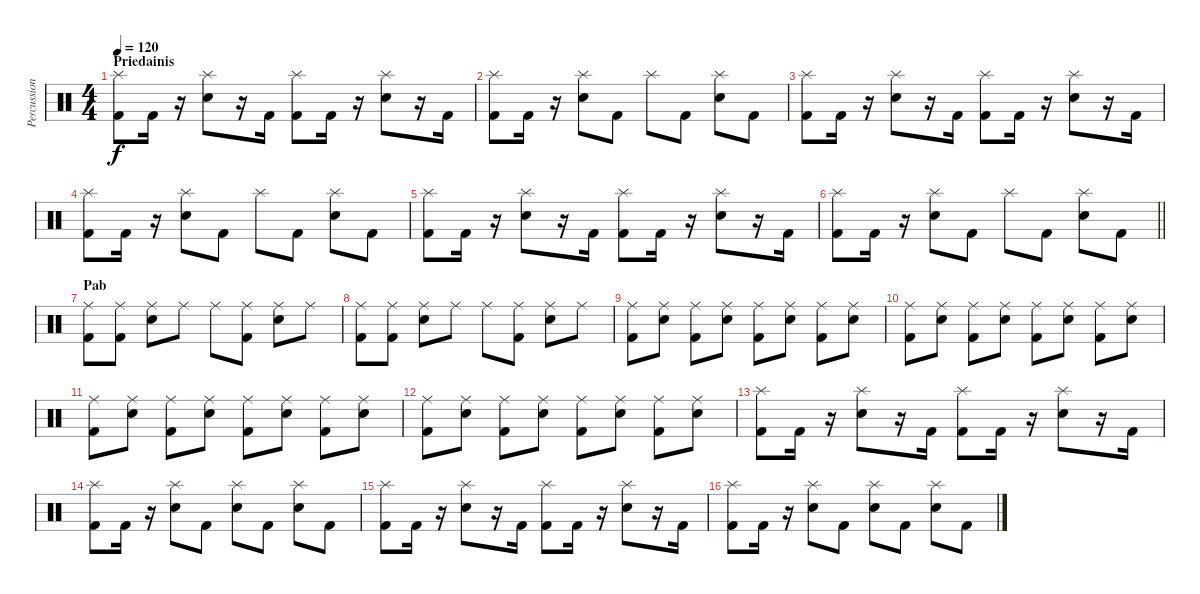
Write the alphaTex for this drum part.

\track ("Percussions" "Percussion") {instrument percussion}
\staff {score}
\articulation defaults
\ts (4 4)
\section ("" "Priedainis")
\tempo 120
\clef neutral
\ks c
("Splash (hit)" "Kick (hit) 2").8{dy f} "Kick (hit) 2".16 r.16 ("Splash (hit)" "Electric Snare (hit)").8 r.16 "Kick (hit) 2".16 ("Splash (hit)" "Kick (hit) 2").8 "Kick (hit) 2".16 r.16 ("Splash (hit)" "Electric Snare (hit)").8 r.16 "Kick (hit) 2".16 |
("Splash (hit)" "Kick (hit) 2").8 "Kick (hit) 2".16 r.16 ("Splash (hit)" "Electric Snare (hit)").8 "Kick (hit) 2".8 "Splash (hit)".8 "Kick (hit) 2".8 ("Splash (hit)" "Electric Snare (hit)").8 "Kick (hit) 2".8 |
("Splash (hit)" "Kick (hit) 2").8 "Kick (hit) 2".16 r.16 ("Splash (hit)" "Electric Snare (hit)").8 r.16 "Kick (hit) 2".16 ("Splash (hit)" "Kick (hit) 2").8 "Kick (hit) 2".16 r.16 ("Splash (hit)" "Electric Snare (hit)").8 r.16 "Kick (hit) 2".16 |
("Splash (hit)" "Kick (hit) 2").8 "Kick (hit) 2".16 r.16 ("Splash (hit)" "Electric Snare (hit)").8 "Kick (hit) 2".8 "Splash (hit)".8 "Kick (hit) 2".8 ("Splash (hit)" "Electric Snare (hit)").8 "Kick (hit) 2".8 |
("Splash (hit)" "Kick (hit) 2").8 "Kick (hit) 2".16 r.16 ("Splash (hit)" "Electric Snare (hit)").8 r.16 "Kick (hit) 2".16 ("Splash (hit)" "Kick (hit) 2").8 "Kick (hit) 2".16 r.16 ("Splash (hit)" "Electric Snare (hit)").8 r.16 "Kick (hit) 2".16 |
\barLineRight lightlight
("Splash (hit)" "Kick (hit) 2").8 "Kick (hit) 2".16 r.16 ("Splash (hit)" "Electric Snare (hit)").8 "Kick (hit) 2".8 "Splash (hit)".8 "Kick (hit) 2".8 ("Splash (hit)" "Electric Snare (hit)").8 "Kick (hit) 2".8 |
\section ("" "Pab")
("Ride (middle)" "Kick (hit) 2").8 ("Ride (middle)" "Kick (hit) 2").8 ("Ride (middle)" "Electric Snare (hit)").8 "Ride (middle)".8 "Ride (middle)".8 ("Ride (middle)" "Kick (hit) 2").8 ("Ride (middle)" "Electric Snare (hit)").8 "Ride (middle)".8 |
("Ride (middle)" "Kick (hit) 2").8 ("Ride (middle)" "Kick (hit) 2").8 ("Ride (middle)" "Electric Snare (hit)").8 "Ride (middle)".8 "Ride (middle)".8 ("Ride (middle)" "Kick (hit) 2").8 ("Ride (middle)" "Electric Snare (hit)").8 "Ride (middle)".8 |
("Ride (middle)" "Kick (hit) 2").8 ("Ride (middle)" "Electric Snare (hit)").8 ("Ride (middle)" "Kick (hit) 2").8 ("Ride (middle)" "Electric Snare (hit)").8 ("Ride (middle)" "Kick (hit) 2").8 ("Ride (middle)" "Electric Snare (hit)").8 ("Ride (middle)" "Kick (hit) 2").8 ("Ride (middle)" "Electric Snare (hit)").8 |
("Ride (middle)" "Kick (hit) 2").8 ("Ride (middle)" "Electric Snare (hit)").8 ("Ride (middle)" "Kick (hit) 2").8 ("Ride (middle)" "Electric Snare (hit)").8 ("Ride (middle)" "Kick (hit) 2").8 ("Ride (middle)" "Electric Snare (hit)").8 ("Ride (middle)" "Kick (hit) 2").8 ("Ride (middle)" "Electric Snare (hit)").8 |
("Ride (middle)" "Kick (hit) 2").8 ("Ride (middle)" "Electric Snare (hit)").8 ("Ride (middle)" "Kick (hit) 2").8 ("Ride (middle)" "Electric Snare (hit)").8 ("Ride (middle)" "Kick (hit) 2").8 ("Ride (middle)" "Electric Snare (hit)").8 ("Ride (middle)" "Kick (hit) 2").8 ("Ride (middle)" "Electric Snare (hit)").8 |
("Ride (middle)" "Kick (hit) 2").8 ("Ride (middle)" "Electric Snare (hit)").8 ("Ride (middle)" "Kick (hit) 2").8 ("Ride (middle)" "Electric Snare (hit)").8 ("Ride (middle)" "Kick (hit) 2").8 ("Ride (middle)" "Electric Snare (hit)").8 ("Ride (middle)" "Kick (hit) 2").8 ("Ride (middle)" "Electric Snare (hit)").8 |
("Splash (hit)" "Kick (hit) 2").8 "Kick (hit) 2".16 r.16 ("Splash (hit)" "Electric Snare (hit)").8 r.16 "Kick (hit) 2".16 ("Splash (hit)" "Kick (hit) 2").8 "Kick (hit) 2".16 r.16 ("Splash (hit)" "Electric Snare (hit)").8 r.16 "Kick (hit) 2".16 |
("Splash (hit)" "Kick (hit) 2").8 "Kick (hit) 2".16 r.16 ("Splash (hit)" "Electric Snare (hit)").8 "Kick (hit) 2".8 ("Splash (hit)" "Electric Snare (hit)").8 "Kick (hit) 2".8 ("Splash (hit)" "Electric Snare (hit)").8 "Kick (hit) 2".8 |
("Splash (hit)" "Kick (hit) 2").8 "Kick (hit) 2".16 r.16 ("Splash (hit)" "Electric Snare (hit)").8 r.16 "Kick (hit) 2".16 ("Splash (hit)" "Kick (hit) 2").8 "Kick (hit) 2".16 r.16 ("Splash (hit)" "Electric Snare (hit)").8 r.16 "Kick (hit) 2".16 |
("Splash (hit)" "Kick (hit) 2").8 "Kick (hit) 2".16 r.16 ("Splash (hit)" "Electric Snare (hit)").8 "Kick (hit) 2".8 ("Splash (hit)" "Electric Snare (hit)").8 "Kick (hit) 2".8 ("Splash (hit)" "Electric Snare (hit)").8 "Kick (hit) 2".8
